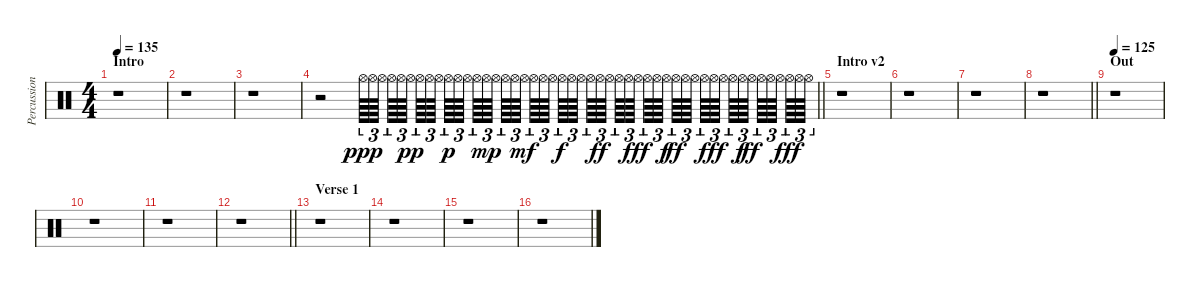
\track ("Percussion" "Percussion") {instrument percussion}
\staff {score}
\articulation defaults
\ts (4 4)
\section ("" "Intro")
\tempo 135
\clef neutral
\ks c
r.1{dy ppp} |
r.1 |
r.1 |
\barLineRight lightlight
r.2 "Hi-Hat (open)".64{tu (3 2)} "Hi-Hat (open)".64{tu (3 2)} "Hi-Hat (open)".64{tu (3 2)} "Hi-Hat (open)".64{tu (3 2)} "Hi-Hat (open)".64{tu (3 2)} "Hi-Hat (open)".64{tu (3 2) dy pp} "Hi-Hat (open)".64{tu (3 2)} "Hi-Hat (open)".64{tu (3 2)} "Hi-Hat (open)".64{tu (3 2)} "Hi-Hat (open)".64{tu (3 2) dy p} "Hi-Hat (open)".64{tu (3 2)} "Hi-Hat (open)".64{tu (3 2)} "Hi-Hat (open)".64{tu (3 2)} "Hi-Hat (open)".64{tu (3 2) dy mp} "Hi-Hat (open)".64{tu (3 2)} "Hi-Hat (open)".64{tu (3 2)} "Hi-Hat (open)".64{tu (3 2)} "Hi-Hat (open)".64{tu (3 2) dy mf} "Hi-Hat (open)".64{tu (3 2)} "Hi-Hat (open)".64{tu (3 2)} "Hi-Hat (open)".64{tu (3 2)} "Hi-Hat (open)".64{tu (3 2) dy f} "Hi-Hat (open)".64{tu (3 2)} "Hi-Hat (open)".64{tu (3 2)} "Hi-Hat (open)".64{tu (3 2)} "Hi-Hat (open)".64{tu (3 2) dy ff} "Hi-Hat (open)".64{tu (3 2)} "Hi-Hat (open)".64{tu (3 2)} "Hi-Hat (open)".64{tu (3 2)} "Hi-Hat (open)".64{tu (3 2) dy fff} "Hi-Hat (open)".64{tu (3 2)} "Hi-Hat (open)".64{tu (3 2)} "Hi-Hat (open)".64{tu (3 2) dy f} "Hi-Hat (open)".64{tu (3 2) dy ff} "Hi-Hat (open)".64{tu (3 2)} "Hi-Hat (open)".64{tu (3 2)} "Hi-Hat (open)".64{tu (3 2)} "Hi-Hat (open)".64{tu (3 2) dy fff} "Hi-Hat (open)".64{tu (3 2)} "Hi-Hat (open)".64{tu (3 2)} "Hi-Hat (open)".64{tu (3 2) dy f} "Hi-Hat (open)".64{tu (3 2) dy ff} "Hi-Hat (open)".64{tu (3 2)} "Hi-Hat (open)".64{tu (3 2)} "Hi-Hat (open)".64{tu (3 2)} "Hi-Hat (open)".64{tu (3 2) dy fff} "Hi-Hat (open)".64{tu (3 2)} "Hi-Hat (open)".64{tu (3 2)} |
\section ("" "Intro v2")
r.1 |
r.1 |
r.1 |
\barLineRight lightlight
r.1 |
\section ("" "Out")
\tempo 125
r.1 |
r.1 |
r.1 |
\barLineRight lightlight
r.1 |
\section ("" "Verse 1")
r.1 |
r.1 |
r.1 |
r.1
